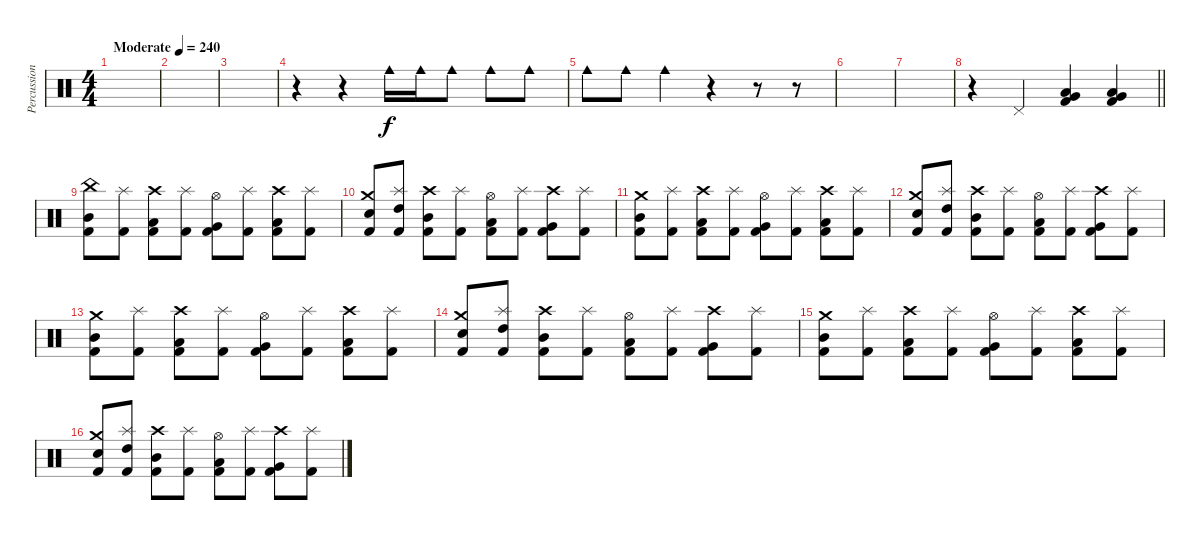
\track ("Percussions" "Percussion") {instrument percussion}
\staff {score}
\articulation defaults
\ts (4 4)
\tempo (240 "Moderate")
\tempo 250
\tempo (240 "Moderate")
\clef neutral
\ks c
|
|
|
r.4 r.4 "Cowbell medium (hit)".16 "Cowbell medium (hit)".16 "Cowbell medium (hit)".8 "Cowbell medium (hit)".8 "Cowbell medium (hit)".8 |
"Cowbell medium (hit)".8 "Cowbell medium (hit)".8 "Cowbell medium (hit)".4 r.4 r.8 r.8 |
|
|
\barLineRight lightlight
r.4 "Pedal Hi-Hat (hit)".4 ("Very Low Tom (hit)" "Low Floor Tom (hit)" "Kick (hit) 2").4 ("Very Low Tom (hit)" "Low Floor Tom (hit)" "Kick (hit) 2").4 |
("China (hit)" "Mid Tom (hit)" "Kick (hit) 2").8 ("Splash (hit)" "Kick (hit) 2").8 ("Crash high (hit)" "Low Tom (hit)" "Kick (hit) 2").8 ("Splash (hit)" "Kick (hit) 2").8 ("Hi-Hat (open)" "Very Low Tom (hit)" "Kick (hit) 2").8 ("Splash (hit)" "Kick (hit) 2").8 ("Crash high (hit)" "Low Floor Tom (hit)" "Kick (hit) 2").8 ("Splash (hit)" "Kick (hit) 2").8 |
("Crash medium (hit)" "Electric Snare (hit)" "Kick (hit) 2").8 ("Splash (hit)" "High Tom (hit)" "Kick (hit) 2").8 ("Crash high (hit)" "Mid Tom (hit)" "Kick (hit) 2").8 ("Splash (hit)" "Kick (hit) 2").8 ("Hi-Hat (open)" "Low Tom (hit)" "Kick (hit) 2").8 ("Splash (hit)" "Kick (hit) 2").8 ("Crash high (hit)" "Very Low Tom (hit)" "Kick (hit) 2").8 ("Splash (hit)" "Kick (hit) 2").8 |
("Crash medium (hit)" "Mid Tom (hit)" "Kick (hit) 2").8 ("Splash (hit)" "Kick (hit) 2").8 ("Crash high (hit)" "Low Tom (hit)" "Kick (hit) 2").8 ("Splash (hit)" "Kick (hit) 2").8 ("Hi-Hat (open)" "Very Low Tom (hit)" "Kick (hit) 2").8 ("Splash (hit)" "Kick (hit) 2").8 ("Crash high (hit)" "Low Floor Tom (hit)" "Kick (hit) 2").8 ("Splash (hit)" "Kick (hit) 2").8 |
("Crash medium (hit)" "Electric Snare (hit)" "Kick (hit) 2").8 ("Splash (hit)" "High Tom (hit)" "Kick (hit) 2").8 ("Crash high (hit)" "Mid Tom (hit)" "Kick (hit) 2").8 ("Splash (hit)" "Kick (hit) 2").8 ("Hi-Hat (open)" "Low Tom (hit)" "Kick (hit) 2").8 ("Splash (hit)" "Kick (hit) 2").8 ("Crash high (hit)" "Very Low Tom (hit)" "Kick (hit) 2").8 ("Splash (hit)" "Kick (hit) 2").8 |
("Crash medium (hit)" "Mid Tom (hit)" "Kick (hit) 2").8 ("Splash (hit)" "Kick (hit) 2").8 ("Crash high (hit)" "Low Tom (hit)" "Kick (hit) 2").8 ("Splash (hit)" "Kick (hit) 2").8 ("Hi-Hat (open)" "Very Low Tom (hit)" "Kick (hit) 2").8 ("Splash (hit)" "Kick (hit) 2").8 ("Crash high (hit)" "Low Floor Tom (hit)" "Kick (hit) 2").8 ("Splash (hit)" "Kick (hit) 2").8 |
("Crash medium (hit)" "Electric Snare (hit)" "Kick (hit) 2").8 ("Splash (hit)" "High Tom (hit)" "Kick (hit) 2").8 ("Crash high (hit)" "Mid Tom (hit)" "Kick (hit) 2").8 ("Splash (hit)" "Kick (hit) 2").8 ("Hi-Hat (open)" "Low Tom (hit)" "Kick (hit) 2").8 ("Splash (hit)" "Kick (hit) 2").8 ("Crash high (hit)" "Very Low Tom (hit)" "Kick (hit) 2").8 ("Splash (hit)" "Kick (hit) 2").8 |
("Crash medium (hit)" "Mid Tom (hit)" "Kick (hit) 2").8 ("Splash (hit)" "Kick (hit) 2").8 ("Crash high (hit)" "Low Tom (hit)" "Kick (hit) 2").8 ("Splash (hit)" "Kick (hit) 2").8 ("Hi-Hat (open)" "Very Low Tom (hit)" "Kick (hit) 2").8 ("Splash (hit)" "Kick (hit) 2").8 ("Crash high (hit)" "Low Floor Tom (hit)" "Kick (hit) 2").8 ("Splash (hit)" "Kick (hit) 2").8 |
("Crash medium (hit)" "Electric Snare (hit)" "Kick (hit) 2").8 ("Splash (hit)" "High Tom (hit)" "Kick (hit) 2").8 ("Crash high (hit)" "Mid Tom (hit)" "Kick (hit) 2").8 ("Splash (hit)" "Kick (hit) 2").8 ("Hi-Hat (open)" "Low Tom (hit)" "Kick (hit) 2").8 ("Splash (hit)" "Kick (hit) 2").8 ("Crash high (hit)" "Very Low Tom (hit)" "Kick (hit) 2").8 ("Splash (hit)" "Kick (hit) 2").8
